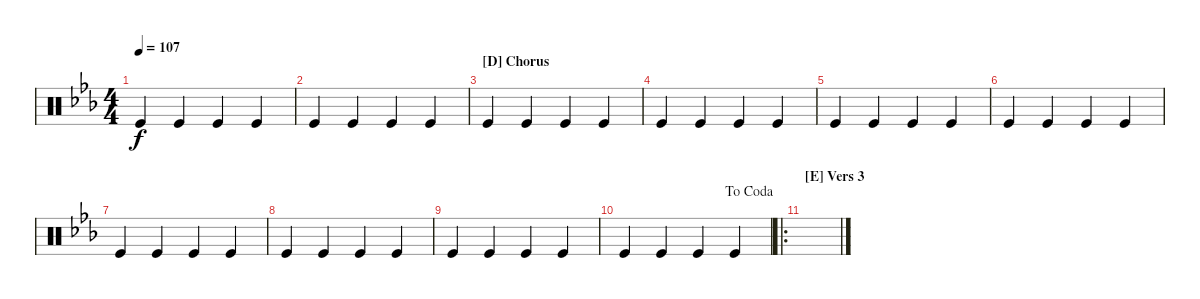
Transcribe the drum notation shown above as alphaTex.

\defaultSystemsLayout 4
\bracketExtendMode groupsimilarinstruments
\singleTrackTrackNamePolicy hidden
\firstSystemTrackNameOrientation horizontal
\otherSystemsTrackNameOrientation horizontal
\chordDiagramsInScore
\track ("Tambourine" "Tamb.") {instrument percussion}
\staff {score}
\articulation defaults
\ts (4 4)
\tempo 107
\clef neutral
\ks cminor "Kick (hit)".4{dy f} "Kick (hit)".4 "Kick (hit)".4 "Kick (hit)".4
|
"Kick (hit)".4 "Kick (hit)".4 "Kick (hit)".4 "Kick (hit)".4 |
\section ("D" "Chorus")
"Kick (hit)".4 "Kick (hit)".4 "Kick (hit)".4 "Kick (hit)".4 |
"Kick (hit)".4 "Kick (hit)".4 "Kick (hit)".4 "Kick (hit)".4 |
"Kick (hit)".4 "Kick (hit)".4 "Kick (hit)".4 "Kick (hit)".4 |
"Kick (hit)".4 "Kick (hit)".4 "Kick (hit)".4 "Kick (hit)".4 |
"Kick (hit)".4 "Kick (hit)".4 "Kick (hit)".4 "Kick (hit)".4 |
"Kick (hit)".4 "Kick (hit)".4 "Kick (hit)".4 "Kick (hit)".4 |
"Kick (hit)".4 "Kick (hit)".4 "Kick (hit)".4 "Kick (hit)".4 |
\jump dacoda "Kick (hit)".4 "Kick (hit)".4 "Kick (hit)".4 "Kick (hit)".4
|
\ro
\section ("E" "Vers 3")
